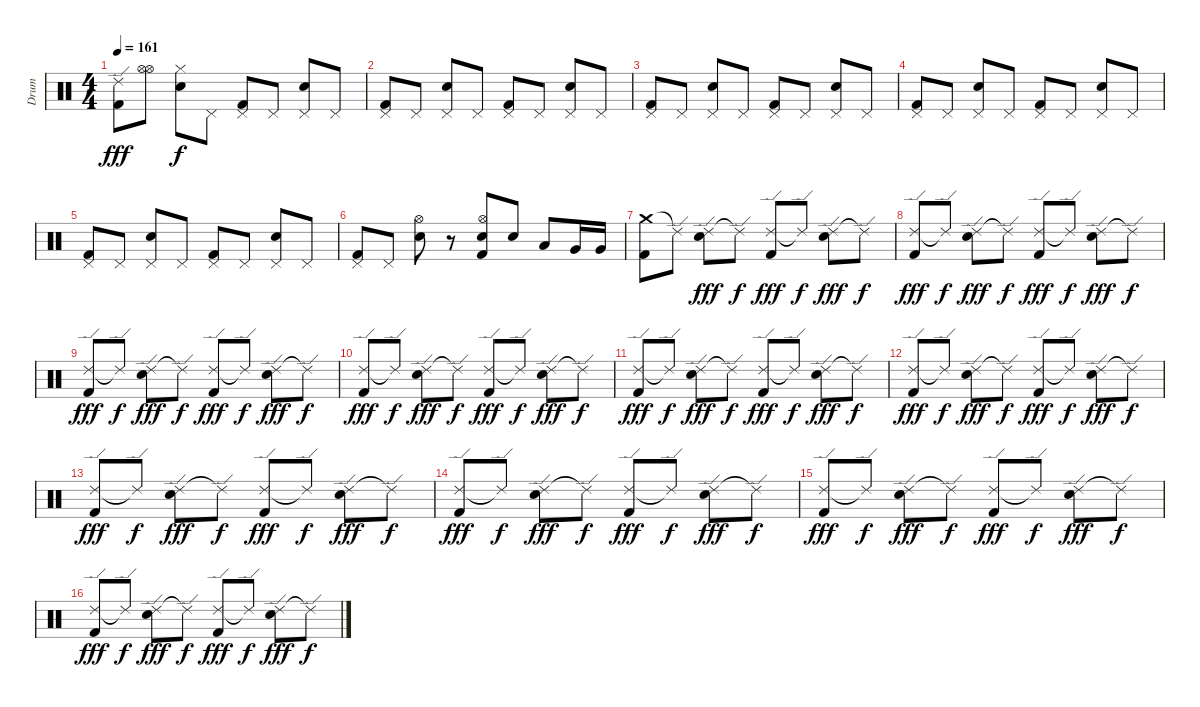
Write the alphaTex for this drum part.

\track ("Drum" "Drum") {instrument percussion}
\staff {score}
\articulation defaults
\ts (4 4)
\tempo 161
\clef neutral
\ks c
("Ride (edge) 2" "Kick (hit) 2").8{dy fff} ("Hi-Hat (open)" "Hi-Hat (open)").8 ("Hi-Hat (closed)" "Snare (hit) 2").8{dy f} "Pedal Hi-Hat (hit)".8 ("Pedal Hi-Hat (hit)" "Kick (hit) 2").8 "Pedal Hi-Hat (hit)".8 ("Pedal Hi-Hat (hit)" "Snare (hit) 2").8 "Pedal Hi-Hat (hit)".8 |
("Pedal Hi-Hat (hit)" "Kick (hit) 2").8 "Pedal Hi-Hat (hit)".8 ("Pedal Hi-Hat (hit)" "Snare (hit) 2").8 "Pedal Hi-Hat (hit)".8 ("Pedal Hi-Hat (hit)" "Kick (hit) 2").8 "Pedal Hi-Hat (hit)".8 ("Pedal Hi-Hat (hit)" "Snare (hit) 2").8 "Pedal Hi-Hat (hit)".8 |
("Pedal Hi-Hat (hit)" "Kick (hit) 2").8 "Pedal Hi-Hat (hit)".8 ("Pedal Hi-Hat (hit)" "Snare (hit) 2").8 "Pedal Hi-Hat (hit)".8 ("Pedal Hi-Hat (hit)" "Kick (hit) 2").8 "Pedal Hi-Hat (hit)".8 ("Pedal Hi-Hat (hit)" "Snare (hit) 2").8 "Pedal Hi-Hat (hit)".8 |
("Pedal Hi-Hat (hit)" "Kick (hit) 2").8 "Pedal Hi-Hat (hit)".8 ("Pedal Hi-Hat (hit)" "Snare (hit) 2").8 "Pedal Hi-Hat (hit)".8 ("Pedal Hi-Hat (hit)" "Kick (hit) 2").8 "Pedal Hi-Hat (hit)".8 ("Pedal Hi-Hat (hit)" "Snare (hit) 2").8 "Pedal Hi-Hat (hit)".8 |
("Pedal Hi-Hat (hit)" "Kick (hit) 2").8 "Pedal Hi-Hat (hit)".8 ("Pedal Hi-Hat (hit)" "Snare (hit) 2").8 "Pedal Hi-Hat (hit)".8 ("Pedal Hi-Hat (hit)" "Kick (hit) 2").8 "Pedal Hi-Hat (hit)".8 ("Pedal Hi-Hat (hit)" "Snare (hit) 2").8 "Pedal Hi-Hat (hit)".8 |
("Pedal Hi-Hat (hit)" "Kick (hit) 2").8 "Pedal Hi-Hat (hit)".8 ("Hi-Hat (open)" "Snare (hit) 2").8 r.8 ("Hi-Hat (open)" "Snare (hit) 2" "Kick (hit) 2").8 "Snare (hit) 2".8 "Low Tom (hit)".8 "Very Low Tom (hit)".16 "Very Low Tom (hit)".16 |
("Crash medium (hit)" "Kick (hit) 2").8 "Ride (edge) 2"{t}.8 ("Ride (edge) 2" "Snare (hit) 2").8{dy fff} "Ride (edge) 2"{t}.8{dy f} ("Ride (edge) 2" "Kick (hit) 2").8{dy fff} "Ride (edge) 2"{t}.8{dy f} ("Ride (edge) 2" "Snare (hit) 2").8{dy fff} "Ride (edge) 2"{t}.8{dy f} |
("Ride (edge) 2" "Kick (hit) 2").8{dy fff} "Ride (edge) 2"{t}.8{dy f} ("Ride (edge) 2" "Snare (hit) 2").8{dy fff} "Ride (edge) 2"{t}.8{dy f} ("Ride (edge) 2" "Kick (hit) 2").8{dy fff} "Ride (edge) 2"{t}.8{dy f} ("Ride (edge) 2" "Snare (hit) 2").8{dy fff} "Ride (edge) 2"{t}.8{dy f} |
("Ride (edge) 2" "Kick (hit) 2").8{dy fff} "Ride (edge) 2"{t}.8{dy f} ("Ride (edge) 2" "Snare (hit) 2").8{dy fff} "Ride (edge) 2"{t}.8{dy f} ("Ride (edge) 2" "Kick (hit) 2").8{dy fff} "Ride (edge) 2"{t}.8{dy f} ("Ride (edge) 2" "Snare (hit) 2").8{dy fff} "Ride (edge) 2"{t}.8{dy f} |
("Ride (edge) 2" "Kick (hit) 2").8{dy fff} "Ride (edge) 2"{t}.8{dy f} ("Ride (edge) 2" "Snare (hit) 2").8{dy fff} "Ride (edge) 2"{t}.8{dy f} ("Ride (edge) 2" "Kick (hit) 2").8{dy fff} "Ride (edge) 2"{t}.8{dy f} ("Ride (edge) 2" "Snare (hit) 2").8{dy fff} "Ride (edge) 2"{t}.8{dy f} |
("Ride (edge) 2" "Kick (hit) 2").8{dy fff} "Ride (edge) 2"{t}.8{dy f} ("Ride (edge) 2" "Snare (hit) 2").8{dy fff} "Ride (edge) 2"{t}.8{dy f} ("Ride (edge) 2" "Kick (hit) 2").8{dy fff} "Ride (edge) 2"{t}.8{dy f} ("Ride (edge) 2" "Snare (hit) 2").8{dy fff} "Ride (edge) 2"{t}.8{dy f} |
("Ride (edge) 2" "Kick (hit) 2").8{dy fff} "Ride (edge) 2"{t}.8{dy f} ("Ride (edge) 2" "Snare (hit) 2").8{dy fff} "Ride (edge) 2"{t}.8{dy f} ("Ride (edge) 2" "Kick (hit) 2").8{dy fff} "Ride (edge) 2"{t}.8{dy f} ("Ride (edge) 2" "Snare (hit) 2").8{dy fff} "Ride (edge) 2"{t}.8{dy f} |
("Ride (edge) 2" "Kick (hit) 2").8{dy fff} "Ride (edge) 2"{t}.8{dy f} ("Ride (edge) 2" "Snare (hit) 2").8{dy fff} "Ride (edge) 2"{t}.8{dy f} ("Ride (edge) 2" "Kick (hit) 2").8{dy fff} "Ride (edge) 2"{t}.8{dy f} ("Ride (edge) 2" "Snare (hit) 2").8{dy fff} "Ride (edge) 2"{t}.8{dy f} |
("Ride (edge) 2" "Kick (hit) 2").8{dy fff} "Ride (edge) 2"{t}.8{dy f} ("Ride (edge) 2" "Snare (hit) 2").8{dy fff} "Ride (edge) 2"{t}.8{dy f} ("Ride (edge) 2" "Kick (hit) 2").8{dy fff} "Ride (edge) 2"{t}.8{dy f} ("Ride (edge) 2" "Snare (hit) 2").8{dy fff} "Ride (edge) 2"{t}.8{dy f} |
("Ride (edge) 2" "Kick (hit) 2").8{dy fff} "Ride (edge) 2"{t}.8{dy f} ("Ride (edge) 2" "Snare (hit) 2").8{dy fff} "Ride (edge) 2"{t}.8{dy f} ("Ride (edge) 2" "Kick (hit) 2").8{dy fff} "Ride (edge) 2"{t}.8{dy f} ("Ride (edge) 2" "Snare (hit) 2").8{dy fff} "Ride (edge) 2"{t}.8{dy f} |
("Ride (edge) 2" "Kick (hit) 2").8{dy fff} "Ride (edge) 2"{t}.8{dy f} ("Ride (edge) 2" "Snare (hit) 2").8{dy fff} "Ride (edge) 2"{t}.8{dy f} ("Ride (edge) 2" "Kick (hit) 2").8{dy fff} "Ride (edge) 2"{t}.8{dy f} ("Ride (edge) 2" "Snare (hit) 2").8{dy fff} "Ride (edge) 2"{t}.8{dy f}
